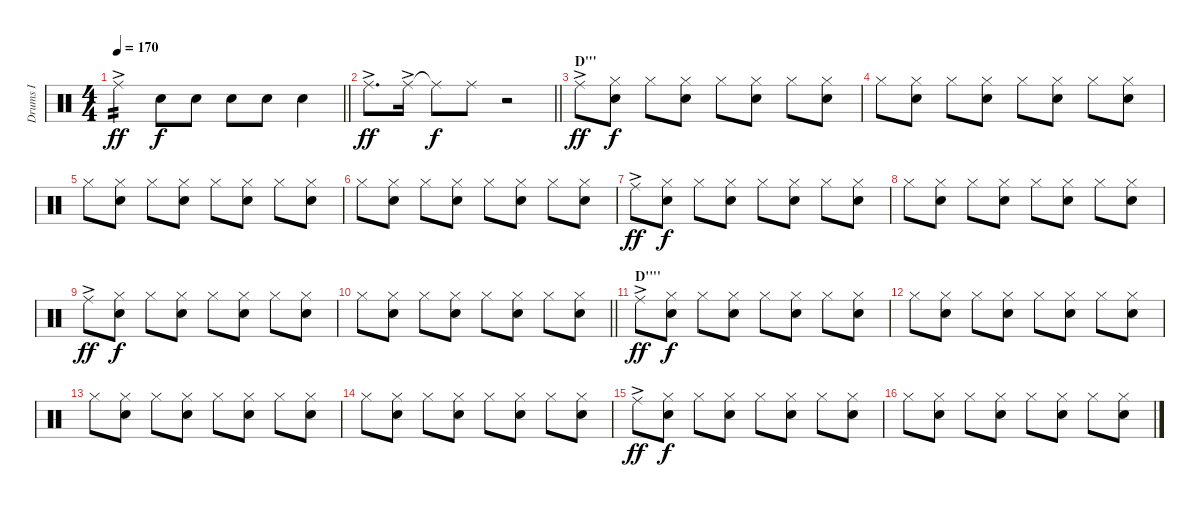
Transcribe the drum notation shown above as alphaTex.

\track ("Drums I" "Drums I") {instrument percussion}
\staff {score}
\articulation defaults
\ts (4 4)
\tempo 170
\clef neutral
\barLineRight lightlight
\ks c "Ride (middle)"{ac}.4{tp 2 dy ff} "Snare (hit) 2".8{dy f} "Snare (hit) 2".8 "Snare (hit) 2".8 "Snare (hit) 2".8 "Snare (hit) 2".4
|
\barLineRight lightlight "Ride (middle)"{ac}.8{d dy ff} "Ride (middle)"{ac}.16 "Ride (middle)"{t}.8{dy f} "Ride (middle)".8
r.2 |
\section ("" "D'''")
"Ride (middle)"{ac}.8{dy ff} ("Hi-Hat (closed)" "Snare (hit) 2").8{dy f} "Hi-Hat (closed)".8 ("Hi-Hat (closed)" "Snare (hit) 2").8 "Hi-Hat (closed)".8 ("Hi-Hat (closed)" "Snare (hit) 2").8 "Hi-Hat (closed)".8 ("Hi-Hat (closed)" "Snare (hit) 2").8 |
"Hi-Hat (closed)".8 ("Hi-Hat (closed)" "Snare (hit) 2").8 "Hi-Hat (closed)".8 ("Hi-Hat (closed)" "Snare (hit) 2").8 "Hi-Hat (closed)".8 ("Hi-Hat (closed)" "Snare (hit) 2").8 "Hi-Hat (closed)".8 ("Hi-Hat (closed)" "Snare (hit) 2").8 |
"Hi-Hat (closed)".8 ("Hi-Hat (closed)" "Snare (hit) 2").8 "Hi-Hat (closed)".8 ("Hi-Hat (closed)" "Snare (hit) 2").8 "Hi-Hat (closed)".8 ("Hi-Hat (closed)" "Snare (hit) 2").8 "Hi-Hat (closed)".8 ("Hi-Hat (closed)" "Snare (hit) 2").8 |
"Hi-Hat (closed)".8 ("Hi-Hat (closed)" "Snare (hit) 2").8 "Hi-Hat (closed)".8 ("Hi-Hat (closed)" "Snare (hit) 2").8 "Hi-Hat (closed)".8 ("Hi-Hat (closed)" "Snare (hit) 2").8 "Hi-Hat (closed)".8 ("Hi-Hat (closed)" "Snare (hit) 2").8 |
"Ride (middle)"{ac}.8{dy ff} ("Hi-Hat (closed)" "Snare (hit) 2").8{dy f} "Hi-Hat (closed)".8 ("Hi-Hat (closed)" "Snare (hit) 2").8 "Hi-Hat (closed)".8 ("Hi-Hat (closed)" "Snare (hit) 2").8 "Hi-Hat (closed)".8 ("Hi-Hat (closed)" "Snare (hit) 2").8 |
"Hi-Hat (closed)".8 ("Hi-Hat (closed)" "Snare (hit) 2").8 "Hi-Hat (closed)".8 ("Hi-Hat (closed)" "Snare (hit) 2").8 "Hi-Hat (closed)".8 ("Hi-Hat (closed)" "Snare (hit) 2").8 "Hi-Hat (closed)".8 ("Hi-Hat (closed)" "Snare (hit) 2").8 |
"Ride (middle)"{ac}.8{dy ff} ("Hi-Hat (closed)" "Snare (hit) 2").8{dy f} "Hi-Hat (closed)".8 ("Hi-Hat (closed)" "Snare (hit) 2").8 "Hi-Hat (closed)".8 ("Hi-Hat (closed)" "Snare (hit) 2").8 "Hi-Hat (closed)".8 ("Hi-Hat (closed)" "Snare (hit) 2").8 |
\barLineRight lightlight "Hi-Hat (closed)".8
("Hi-Hat (closed)" "Snare (hit) 2").8 "Hi-Hat (closed)".8 ("Hi-Hat (closed)" "Snare (hit) 2").8 "Hi-Hat (closed)".8 ("Hi-Hat (closed)" "Snare (hit) 2").8 "Hi-Hat (closed)".8 ("Hi-Hat (closed)" "Snare (hit) 2").8 |
\section ("" "D''''")
"Ride (middle)"{ac}.8{dy ff} ("Hi-Hat (closed)" "Snare (hit) 2").8{dy f} "Hi-Hat (closed)".8 ("Hi-Hat (closed)" "Snare (hit) 2").8 "Hi-Hat (closed)".8 ("Hi-Hat (closed)" "Snare (hit) 2").8 "Hi-Hat (closed)".8 ("Hi-Hat (closed)" "Snare (hit) 2").8 |
"Hi-Hat (closed)".8 ("Hi-Hat (closed)" "Snare (hit) 2").8 "Hi-Hat (closed)".8 ("Hi-Hat (closed)" "Snare (hit) 2").8 "Hi-Hat (closed)".8 ("Hi-Hat (closed)" "Snare (hit) 2").8 "Hi-Hat (closed)".8 ("Hi-Hat (closed)" "Snare (hit) 2").8 |
"Hi-Hat (closed)".8 ("Hi-Hat (closed)" "Snare (hit) 2").8 "Hi-Hat (closed)".8 ("Hi-Hat (closed)" "Snare (hit) 2").8 "Hi-Hat (closed)".8 ("Hi-Hat (closed)" "Snare (hit) 2").8 "Hi-Hat (closed)".8 ("Hi-Hat (closed)" "Snare (hit) 2").8 |
"Hi-Hat (closed)".8 ("Hi-Hat (closed)" "Snare (hit) 2").8 "Hi-Hat (closed)".8 ("Hi-Hat (closed)" "Snare (hit) 2").8 "Hi-Hat (closed)".8 ("Hi-Hat (closed)" "Snare (hit) 2").8 "Hi-Hat (closed)".8 ("Hi-Hat (closed)" "Snare (hit) 2").8 |
"Ride (middle)"{ac}.8{dy ff} ("Hi-Hat (closed)" "Snare (hit) 2").8{dy f} "Hi-Hat (closed)".8 ("Hi-Hat (closed)" "Snare (hit) 2").8 "Hi-Hat (closed)".8 ("Hi-Hat (closed)" "Snare (hit) 2").8 "Hi-Hat (closed)".8 ("Hi-Hat (closed)" "Snare (hit) 2").8 |
"Hi-Hat (closed)".8 ("Hi-Hat (closed)" "Snare (hit) 2").8 "Hi-Hat (closed)".8 ("Hi-Hat (closed)" "Snare (hit) 2").8 "Hi-Hat (closed)".8 ("Hi-Hat (closed)" "Snare (hit) 2").8 "Hi-Hat (closed)".8 ("Hi-Hat (closed)" "Snare (hit) 2").8
